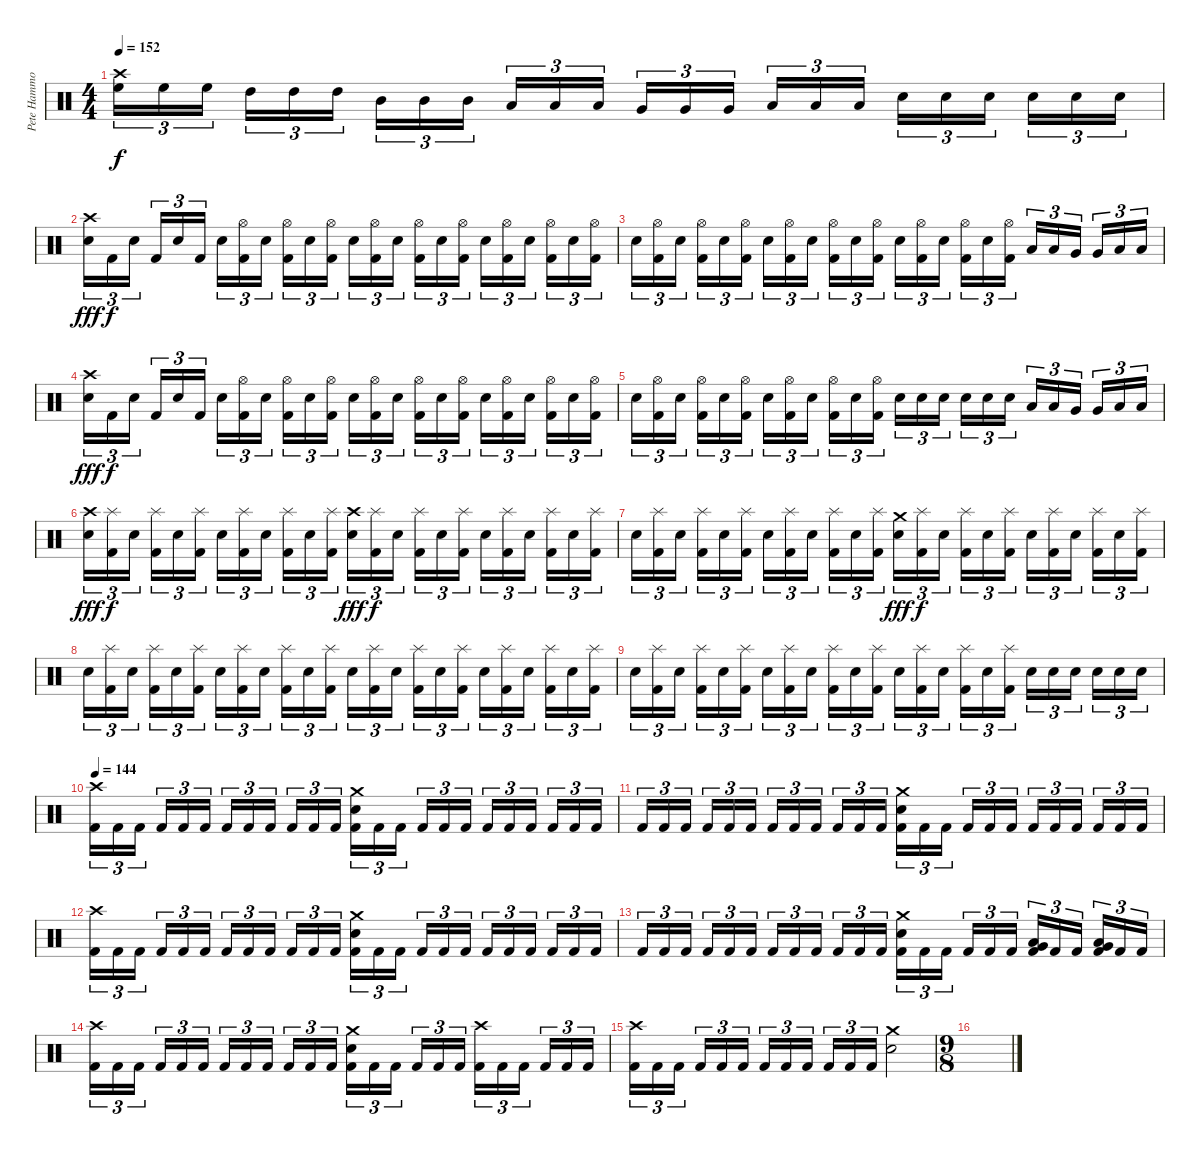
\track ("Pete Hammoura" "Pete Hammo") {instrument percussion}
\staff {score}
\articulation defaults
\ts (4 4)
\tempo 152
\clef neutral
\ks c
("Crash high (hit)" "High Floor Tom (hit)").16{tu (3 2) dy f} "High Floor Tom (hit)".16{tu (3 2)} "High Floor Tom (hit)".16{tu (3 2)} "High Tom (hit)".16{tu (3 2)} "High Tom (hit)".16{tu (3 2)} "High Tom (hit)".16{tu (3 2)} "Mid Tom (hit)".16{tu (3 2)} "Mid Tom (hit)".16{tu (3 2)} "Mid Tom (hit)".16{tu (3 2)} "Low Tom (hit)".16{tu (3 2)} "Low Tom (hit)".16{tu (3 2)} "Low Tom (hit)".16{tu (3 2)} "Very Low Tom (hit)".16{tu (3 2)} "Very Low Tom (hit)".16{tu (3 2)} "Very Low Tom (hit)".16{tu (3 2)} "Low Floor Tom (hit)".16{tu (3 2)} "Low Floor Tom (hit)".16{tu (3 2)} "Low Floor Tom (hit)".16{tu (3 2)} "Electric Snare (hit)".16{tu (3 2)} "Electric Snare (hit)".16{tu (3 2)} "Electric Snare (hit)".16{tu (3 2)} "Electric Snare (hit)".16{tu (3 2)} "Electric Snare (hit)".16{tu (3 2)} "Electric Snare (hit)".16{tu (3 2)} |
("Crash high (hit)" "Electric Snare (hit)").16{tu (3 2) dy fff} "Kick (hit) 2".16{tu (3 2) dy f} "Electric Snare (hit)".16{tu (3 2)} "Kick (hit) 2".16{tu (3 2)} "Electric Snare (hit)".16{tu (3 2)} "Kick (hit) 2".16{tu (3 2)} "Electric Snare (hit)".16{tu (3 2)} ("Hi-Hat (open)" "Kick (hit) 2").16{tu (3 2)} "Electric Snare (hit)".16{tu (3 2)} ("Hi-Hat (open)" "Kick (hit) 2").16{tu (3 2)} "Electric Snare (hit)".16{tu (3 2)} ("Hi-Hat (open)" "Kick (hit) 2").16{tu (3 2)} "Electric Snare (hit)".16{tu (3 2)} ("Hi-Hat (open)" "Kick (hit) 2").16{tu (3 2)} "Electric Snare (hit)".16{tu (3 2)} ("Hi-Hat (open)" "Kick (hit) 2").16{tu (3 2)} "Electric Snare (hit)".16{tu (3 2)} ("Hi-Hat (open)" "Kick (hit) 2").16{tu (3 2)} "Electric Snare (hit)".16{tu (3 2)} ("Hi-Hat (open)" "Kick (hit) 2").16{tu (3 2)} "Electric Snare (hit)".16{tu (3 2)} ("Hi-Hat (open)" "Kick (hit) 2").16{tu (3 2)} "Electric Snare (hit)".16{tu (3 2)} ("Hi-Hat (open)" "Kick (hit) 2").16{tu (3 2)} |
"Electric Snare (hit)".16{tu (3 2)} ("Hi-Hat (open)" "Kick (hit) 2").16{tu (3 2)} "Electric Snare (hit)".16{tu (3 2)} ("Hi-Hat (open)" "Kick (hit) 2").16{tu (3 2)} "Electric Snare (hit)".16{tu (3 2)} ("Hi-Hat (open)" "Kick (hit) 2").16{tu (3 2)} "Electric Snare (hit)".16{tu (3 2)} ("Hi-Hat (open)" "Kick (hit) 2").16{tu (3 2)} "Electric Snare (hit)".16{tu (3 2)} ("Hi-Hat (open)" "Kick (hit) 2").16{tu (3 2)} "Electric Snare (hit)".16{tu (3 2)} ("Hi-Hat (open)" "Kick (hit) 2").16{tu (3 2)} "Electric Snare (hit)".16{tu (3 2)} ("Hi-Hat (open)" "Kick (hit) 2").16{tu (3 2)} "Electric Snare (hit)".16{tu (3 2)} ("Hi-Hat (open)" "Kick (hit) 2").16{tu (3 2)} "Electric Snare (hit)".16{tu (3 2)} ("Hi-Hat (open)" "Kick (hit) 2").16{tu (3 2)} "Low Tom (hit)".16{tu (3 2)} "Low Tom (hit)".16{tu (3 2)} "Very Low Tom (hit)".16{tu (3 2)} "Very Low Tom (hit)".16{tu (3 2)} "Low Floor Tom (hit)".16{tu (3 2)} "Low Floor Tom (hit)".16{tu (3 2)} |
("Crash high (hit)" "Electric Snare (hit)").16{tu (3 2) dy fff} "Kick (hit) 2".16{tu (3 2) dy f} "Electric Snare (hit)".16{tu (3 2)} "Kick (hit) 2".16{tu (3 2)} "Electric Snare (hit)".16{tu (3 2)} "Kick (hit) 2".16{tu (3 2)} "Electric Snare (hit)".16{tu (3 2)} ("Hi-Hat (open)" "Kick (hit) 2").16{tu (3 2)} "Electric Snare (hit)".16{tu (3 2)} ("Hi-Hat (open)" "Kick (hit) 2").16{tu (3 2)} "Electric Snare (hit)".16{tu (3 2)} ("Hi-Hat (open)" "Kick (hit) 2").16{tu (3 2)} "Electric Snare (hit)".16{tu (3 2)} ("Hi-Hat (open)" "Kick (hit) 2").16{tu (3 2)} "Electric Snare (hit)".16{tu (3 2)} ("Hi-Hat (open)" "Kick (hit) 2").16{tu (3 2)} "Electric Snare (hit)".16{tu (3 2)} ("Hi-Hat (open)" "Kick (hit) 2").16{tu (3 2)} "Electric Snare (hit)".16{tu (3 2)} ("Hi-Hat (open)" "Kick (hit) 2").16{tu (3 2)} "Electric Snare (hit)".16{tu (3 2)} ("Hi-Hat (open)" "Kick (hit) 2").16{tu (3 2)} "Electric Snare (hit)".16{tu (3 2)} ("Hi-Hat (open)" "Kick (hit) 2").16{tu (3 2)} |
"Electric Snare (hit)".16{tu (3 2)} ("Hi-Hat (open)" "Kick (hit) 2").16{tu (3 2)} "Electric Snare (hit)".16{tu (3 2)} ("Hi-Hat (open)" "Kick (hit) 2").16{tu (3 2)} "Electric Snare (hit)".16{tu (3 2)} ("Hi-Hat (open)" "Kick (hit) 2").16{tu (3 2)} "Electric Snare (hit)".16{tu (3 2)} ("Hi-Hat (open)" "Kick (hit) 2").16{tu (3 2)} "Electric Snare (hit)".16{tu (3 2)} ("Hi-Hat (open)" "Kick (hit) 2").16{tu (3 2)} "Electric Snare (hit)".16{tu (3 2)} ("Hi-Hat (open)" "Kick (hit) 2").16{tu (3 2)} "Electric Snare (hit)".16{tu (3 2)} "Electric Snare (hit)".16{tu (3 2)} "Electric Snare (hit)".16{tu (3 2)} "Electric Snare (hit)".16{tu (3 2)} "Electric Snare (hit)".16{tu (3 2)} "Electric Snare (hit)".16{tu (3 2)} "Low Tom (hit)".16{tu (3 2)} "Low Tom (hit)".16{tu (3 2)} "Very Low Tom (hit)".16{tu (3 2)} "Very Low Tom (hit)".16{tu (3 2)} "Low Floor Tom (hit)".16{tu (3 2)} "Low Floor Tom (hit)".16{tu (3 2)} |
("Crash high (hit)" "Electric Snare (hit)").16{tu (3 2) dy fff} ("Splash (hit)" "Kick (hit) 2").16{tu (3 2) dy f} "Electric Snare (hit)".16{tu (3 2)} ("Splash (hit)" "Kick (hit) 2").16{tu (3 2)} "Electric Snare (hit)".16{tu (3 2)} ("Splash (hit)" "Kick (hit) 2").16{tu (3 2)} "Electric Snare (hit)".16{tu (3 2)} ("Splash (hit)" "Kick (hit) 2").16{tu (3 2)} "Electric Snare (hit)".16{tu (3 2)} ("Splash (hit)" "Kick (hit) 2").16{tu (3 2)} "Electric Snare (hit)".16{tu (3 2)} ("Splash (hit)" "Kick (hit) 2").16{tu (3 2)} ("Crash high (hit)" "Electric Snare (hit)").16{tu (3 2) dy fff} ("Splash (hit)" "Kick (hit) 2").16{tu (3 2) dy f} "Electric Snare (hit)".16{tu (3 2)} ("Splash (hit)" "Kick (hit) 2").16{tu (3 2)} "Electric Snare (hit)".16{tu (3 2)} ("Splash (hit)" "Kick (hit) 2").16{tu (3 2)} "Electric Snare (hit)".16{tu (3 2)} ("Splash (hit)" "Kick (hit) 2").16{tu (3 2)} "Electric Snare (hit)".16{tu (3 2)} ("Splash (hit)" "Kick (hit) 2").16{tu (3 2)} "Electric Snare (hit)".16{tu (3 2)} ("Splash (hit)" "Kick (hit) 2").16{tu (3 2)} |
"Electric Snare (hit)".16{tu (3 2)} ("Splash (hit)" "Kick (hit) 2").16{tu (3 2)} "Electric Snare (hit)".16{tu (3 2)} ("Splash (hit)" "Kick (hit) 2").16{tu (3 2)} "Electric Snare (hit)".16{tu (3 2)} ("Splash (hit)" "Kick (hit) 2").16{tu (3 2)} "Electric Snare (hit)".16{tu (3 2)} ("Splash (hit)" "Kick (hit) 2").16{tu (3 2)} "Electric Snare (hit)".16{tu (3 2)} ("Splash (hit)" "Kick (hit) 2").16{tu (3 2)} "Electric Snare (hit)".16{tu (3 2)} ("Splash (hit)" "Kick (hit) 2").16{tu (3 2)} ("Crash medium (hit)" "Electric Snare (hit)").16{tu (3 2) dy fff} ("Splash (hit)" "Kick (hit) 2").16{tu (3 2) dy f} "Electric Snare (hit)".16{tu (3 2)} ("Splash (hit)" "Kick (hit) 2").16{tu (3 2)} "Electric Snare (hit)".16{tu (3 2)} ("Splash (hit)" "Kick (hit) 2").16{tu (3 2)} "Electric Snare (hit)".16{tu (3 2)} ("Splash (hit)" "Kick (hit) 2").16{tu (3 2)} "Electric Snare (hit)".16{tu (3 2)} ("Splash (hit)" "Kick (hit) 2").16{tu (3 2)} "Electric Snare (hit)".16{tu (3 2)} ("Splash (hit)" "Kick (hit) 2").16{tu (3 2)} |
"Electric Snare (hit)".16{tu (3 2)} ("Splash (hit)" "Kick (hit) 2").16{tu (3 2)} "Electric Snare (hit)".16{tu (3 2)} ("Splash (hit)" "Kick (hit) 2").16{tu (3 2)} "Electric Snare (hit)".16{tu (3 2)} ("Splash (hit)" "Kick (hit) 2").16{tu (3 2)} "Electric Snare (hit)".16{tu (3 2)} ("Splash (hit)" "Kick (hit) 2").16{tu (3 2)} "Electric Snare (hit)".16{tu (3 2)} ("Splash (hit)" "Kick (hit) 2").16{tu (3 2)} "Electric Snare (hit)".16{tu (3 2)} ("Splash (hit)" "Kick (hit) 2").16{tu (3 2)} "Electric Snare (hit)".16{tu (3 2)} ("Splash (hit)" "Kick (hit) 2").16{tu (3 2)} "Electric Snare (hit)".16{tu (3 2)} ("Splash (hit)" "Kick (hit) 2").16{tu (3 2)} "Electric Snare (hit)".16{tu (3 2)} ("Splash (hit)" "Kick (hit) 2").16{tu (3 2)} "Electric Snare (hit)".16{tu (3 2)} ("Splash (hit)" "Kick (hit) 2").16{tu (3 2)} "Electric Snare (hit)".16{tu (3 2)} ("Splash (hit)" "Kick (hit) 2").16{tu (3 2)} "Electric Snare (hit)".16{tu (3 2)} ("Splash (hit)" "Kick (hit) 2").16{tu (3 2)} |
"Electric Snare (hit)".16{tu (3 2)} ("Splash (hit)" "Kick (hit) 2").16{tu (3 2)} "Electric Snare (hit)".16{tu (3 2)} ("Splash (hit)" "Kick (hit) 2").16{tu (3 2)} "Electric Snare (hit)".16{tu (3 2)} ("Splash (hit)" "Kick (hit) 2").16{tu (3 2)} "Electric Snare (hit)".16{tu (3 2)} ("Splash (hit)" "Kick (hit) 2").16{tu (3 2)} "Electric Snare (hit)".16{tu (3 2)} ("Splash (hit)" "Kick (hit) 2").16{tu (3 2)} "Electric Snare (hit)".16{tu (3 2)} ("Splash (hit)" "Kick (hit) 2").16{tu (3 2)} "Electric Snare (hit)".16{tu (3 2)} ("Splash (hit)" "Kick (hit) 2").16{tu (3 2)} "Electric Snare (hit)".16{tu (3 2)} ("Splash (hit)" "Kick (hit) 2").16{tu (3 2)} "Electric Snare (hit)".16{tu (3 2)} ("Splash (hit)" "Kick (hit) 2").16{tu (3 2)} "Electric Snare (hit)".16{tu (3 2)} "Electric Snare (hit)".16{tu (3 2)} "Electric Snare (hit)".16{tu (3 2)} "Electric Snare (hit)".16{tu (3 2)} "Electric Snare (hit)".16{tu (3 2)} "Electric Snare (hit)".16{tu (3 2)} |
\tempo 144
("Crash high (hit)" "Kick (hit) 2").16{tu (3 2)} "Kick (hit) 2".16{tu (3 2)} "Kick (hit) 2".16{tu (3 2)} "Kick (hit) 2".16{tu (3 2)} "Kick (hit) 2".16{tu (3 2)} "Kick (hit) 2".16{tu (3 2)} "Kick (hit) 2".16{tu (3 2)} "Kick (hit) 2".16{tu (3 2)} "Kick (hit) 2".16{tu (3 2)} "Kick (hit) 2".16{tu (3 2)} "Kick (hit) 2".16{tu (3 2)} "Kick (hit) 2".16{tu (3 2)} ("Crash medium (hit)" "Electric Snare (hit)" "Kick (hit) 2").16{tu (3 2)} "Kick (hit) 2".16{tu (3 2)} "Kick (hit) 2".16{tu (3 2)} "Kick (hit) 2".16{tu (3 2)} "Kick (hit) 2".16{tu (3 2)} "Kick (hit) 2".16{tu (3 2)} "Kick (hit) 2".16{tu (3 2)} "Kick (hit) 2".16{tu (3 2)} "Kick (hit) 2".16{tu (3 2)} "Kick (hit) 2".16{tu (3 2)} "Kick (hit) 2".16{tu (3 2)} "Kick (hit) 2".16{tu (3 2)} |
"Kick (hit) 2".16{tu (3 2)} "Kick (hit) 2".16{tu (3 2)} "Kick (hit) 2".16{tu (3 2)} "Kick (hit) 2".16{tu (3 2)} "Kick (hit) 2".16{tu (3 2)} "Kick (hit) 2".16{tu (3 2)} "Kick (hit) 2".16{tu (3 2)} "Kick (hit) 2".16{tu (3 2)} "Kick (hit) 2".16{tu (3 2)} "Kick (hit) 2".16{tu (3 2)} "Kick (hit) 2".16{tu (3 2)} "Kick (hit) 2".16{tu (3 2)} ("Crash medium (hit)" "Electric Snare (hit)" "Kick (hit) 2").16{tu (3 2)} "Kick (hit) 2".16{tu (3 2)} "Kick (hit) 2".16{tu (3 2)} "Kick (hit) 2".16{tu (3 2)} "Kick (hit) 2".16{tu (3 2)} "Kick (hit) 2".16{tu (3 2)} "Kick (hit) 2".16{tu (3 2)} "Kick (hit) 2".16{tu (3 2)} "Kick (hit) 2".16{tu (3 2)} "Kick (hit) 2".16{tu (3 2)} "Kick (hit) 2".16{tu (3 2)} "Kick (hit) 2".16{tu (3 2)} |
("Crash high (hit)" "Kick (hit) 2").16{tu (3 2)} "Kick (hit) 2".16{tu (3 2)} "Kick (hit) 2".16{tu (3 2)} "Kick (hit) 2".16{tu (3 2)} "Kick (hit) 2".16{tu (3 2)} "Kick (hit) 2".16{tu (3 2)} "Kick (hit) 2".16{tu (3 2)} "Kick (hit) 2".16{tu (3 2)} "Kick (hit) 2".16{tu (3 2)} "Kick (hit) 2".16{tu (3 2)} "Kick (hit) 2".16{tu (3 2)} "Kick (hit) 2".16{tu (3 2)} ("Crash medium (hit)" "Electric Snare (hit)" "Kick (hit) 2").16{tu (3 2)} "Kick (hit) 2".16{tu (3 2)} "Kick (hit) 2".16{tu (3 2)} "Kick (hit) 2".16{tu (3 2)} "Kick (hit) 2".16{tu (3 2)} "Kick (hit) 2".16{tu (3 2)} "Kick (hit) 2".16{tu (3 2)} "Kick (hit) 2".16{tu (3 2)} "Kick (hit) 2".16{tu (3 2)} "Kick (hit) 2".16{tu (3 2)} "Kick (hit) 2".16{tu (3 2)} "Kick (hit) 2".16{tu (3 2)} |
"Kick (hit) 2".16{tu (3 2)} "Kick (hit) 2".16{tu (3 2)} "Kick (hit) 2".16{tu (3 2)} "Kick (hit) 2".16{tu (3 2)} "Kick (hit) 2".16{tu (3 2)} "Kick (hit) 2".16{tu (3 2)} "Kick (hit) 2".16{tu (3 2)} "Kick (hit) 2".16{tu (3 2)} "Kick (hit) 2".16{tu (3 2)} "Kick (hit) 2".16{tu (3 2)} "Kick (hit) 2".16{tu (3 2)} "Kick (hit) 2".16{tu (3 2)} ("Crash medium (hit)" "Electric Snare (hit)" "Kick (hit) 2").16{tu (3 2)} "Kick (hit) 2".16{tu (3 2)} "Kick (hit) 2".16{tu (3 2)} "Kick (hit) 2".16{tu (3 2)} "Kick (hit) 2".16{tu (3 2)} "Kick (hit) 2".16{tu (3 2)} ("Low Tom (hit)" "Very Low Tom (hit)" "Kick (hit) 2").16{tu (3 2)} "Kick (hit) 2".16{tu (3 2)} "Kick (hit) 2".16{tu (3 2)} ("Very Low Tom (hit)" "Low Floor Tom (hit)" "Kick (hit) 2").16{tu (3 2)} "Kick (hit) 2".16{tu (3 2)} "Kick (hit) 2".16{tu (3 2)} |
("Crash high (hit)" "Kick (hit) 2").16{tu (3 2)} "Kick (hit) 2".16{tu (3 2)} "Kick (hit) 2".16{tu (3 2)} "Kick (hit) 2".16{tu (3 2)} "Kick (hit) 2".16{tu (3 2)} "Kick (hit) 2".16{tu (3 2)} "Kick (hit) 2".16{tu (3 2)} "Kick (hit) 2".16{tu (3 2)} "Kick (hit) 2".16{tu (3 2)} "Kick (hit) 2".16{tu (3 2)} "Kick (hit) 2".16{tu (3 2)} "Kick (hit) 2".16{tu (3 2)} ("Crash medium (hit)" "Electric Snare (hit)" "Kick (hit) 2").16{tu (3 2)} "Kick (hit) 2".16{tu (3 2)} "Kick (hit) 2".16{tu (3 2)} "Kick (hit) 2".16{tu (3 2)} "Kick (hit) 2".16{tu (3 2)} "Kick (hit) 2".16{tu (3 2)} ("Crash high (hit)" "Kick (hit) 2").16{tu (3 2)} "Kick (hit) 2".16{tu (3 2)} "Kick (hit) 2".16{tu (3 2)} "Kick (hit) 2".16{tu (3 2)} "Kick (hit) 2".16{tu (3 2)} "Kick (hit) 2".16{tu (3 2)} |
("Crash high (hit)" "Kick (hit) 2").16{tu (3 2)} "Kick (hit) 2".16{tu (3 2)} "Kick (hit) 2".16{tu (3 2)} "Kick (hit) 2".16{tu (3 2)} "Kick (hit) 2".16{tu (3 2)} "Kick (hit) 2".16{tu (3 2)} "Kick (hit) 2".16{tu (3 2)} "Kick (hit) 2".16{tu (3 2)} "Kick (hit) 2".16{tu (3 2)} "Kick (hit) 2".16{tu (3 2)} "Kick (hit) 2".16{tu (3 2)} "Kick (hit) 2".16{tu (3 2)} ("Crash medium (hit)" "Electric Snare (hit)").2 |
\ts (9 8)
